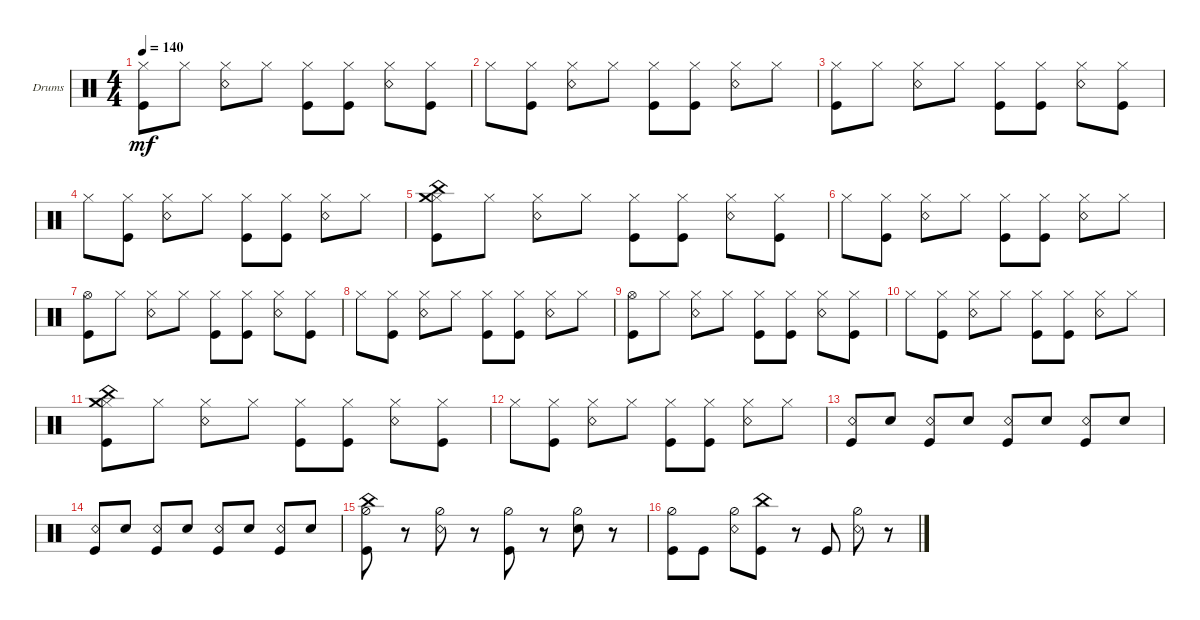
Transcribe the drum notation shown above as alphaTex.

\defaultSystemsLayout 4
\bracketExtendMode groupsimilarinstruments
\firstSystemTrackNameOrientation horizontal
\otherSystemsTrackNameOrientation horizontal
\track ("Drumkit" "Drums") {instrument percussion}
\staff {score}
\articulation defaults
\ts (4 4)
\tempo 140
\clef neutral
\ks c
("Kick (hit)" "Hi-Hat (closed)").8{dy mf} "Hi-Hat (closed)".8 ("Hi-Hat (closed)" "Snare (rim shot)").8 "Hi-Hat (closed)".8 ("Hi-Hat (closed)" "Kick (hit)").8 ("Hi-Hat (closed)" "Kick (hit)").8 ("Hi-Hat (closed)" "Snare (rim shot)").8 ("Hi-Hat (closed)" "Kick (hit)").8 |
"Hi-Hat (closed)".8 ("Hi-Hat (closed)" "Kick (hit)").8 ("Hi-Hat (closed)" "Snare (rim shot)").8 "Hi-Hat (closed)".8 ("Hi-Hat (closed)" "Kick (hit)").8 ("Hi-Hat (closed)" "Kick (hit)").8 ("Hi-Hat (closed)" "Snare (rim shot)").8 "Hi-Hat (closed)".8 |
("Kick (hit)" "Hi-Hat (closed)").8 "Hi-Hat (closed)".8 ("Hi-Hat (closed)" "Snare (rim shot)").8 "Hi-Hat (closed)".8 ("Hi-Hat (closed)" "Kick (hit)").8 ("Hi-Hat (closed)" "Kick (hit)").8 ("Hi-Hat (closed)" "Snare (rim shot)").8 ("Hi-Hat (closed)" "Kick (hit)").8 |
"Hi-Hat (closed)".8 ("Hi-Hat (closed)" "Kick (hit)").8 ("Hi-Hat (closed)" "Snare (rim shot)").8 "Hi-Hat (closed)".8 ("Hi-Hat (closed)" "Kick (hit)").8 ("Hi-Hat (closed)" "Kick (hit)").8 ("Hi-Hat (closed)" "Snare (rim shot)").8 "Hi-Hat (closed)".8 |
("Kick (hit)" "Hi-Hat (closed)" "China (hit)" "Crash medium (hit)").8 "Hi-Hat (closed)".8 ("Hi-Hat (closed)" "Snare (rim shot)").8 "Hi-Hat (closed)".8 ("Hi-Hat (closed)" "Kick (hit)").8 ("Hi-Hat (closed)" "Kick (hit)").8 ("Hi-Hat (closed)" "Snare (rim shot)").8 ("Hi-Hat (closed)" "Kick (hit)").8 |
"Hi-Hat (closed)".8 ("Hi-Hat (closed)" "Kick (hit)").8 ("Hi-Hat (closed)" "Snare (rim shot)").8 "Hi-Hat (closed)".8 ("Hi-Hat (closed)" "Kick (hit)").8 ("Hi-Hat (closed)" "Kick (hit)").8 ("Hi-Hat (closed)" "Snare (rim shot)").8 "Hi-Hat (closed)".8 |
("Kick (hit)" "Hi-Hat (open)").8 "Hi-Hat (closed)".8 ("Hi-Hat (closed)" "Snare (rim shot)").8 "Hi-Hat (closed)".8 ("Hi-Hat (closed)" "Kick (hit)").8 ("Hi-Hat (closed)" "Kick (hit)").8 ("Hi-Hat (closed)" "Snare (rim shot)").8 ("Hi-Hat (closed)" "Kick (hit)").8 |
"Hi-Hat (closed)".8 ("Hi-Hat (closed)" "Kick (hit)").8 ("Hi-Hat (closed)" "Snare (rim shot)").8 "Hi-Hat (closed)".8 ("Hi-Hat (closed)" "Kick (hit)").8 ("Hi-Hat (closed)" "Kick (hit)").8 ("Hi-Hat (closed)" "Snare (rim shot)").8 "Hi-Hat (closed)".8 |
("Kick (hit)" "Hi-Hat (open)").8 "Hi-Hat (closed)".8 ("Hi-Hat (closed)" "Snare (rim shot)").8 "Hi-Hat (closed)".8 ("Hi-Hat (closed)" "Kick (hit)").8 ("Hi-Hat (closed)" "Kick (hit)").8 ("Hi-Hat (closed)" "Snare (rim shot)").8 ("Hi-Hat (closed)" "Kick (hit)").8 |
"Hi-Hat (closed)".8 ("Hi-Hat (closed)" "Kick (hit)").8 ("Hi-Hat (closed)" "Snare (rim shot)").8 "Hi-Hat (closed)".8 ("Hi-Hat (closed)" "Kick (hit)").8 ("Hi-Hat (closed)" "Kick (hit)").8 ("Hi-Hat (closed)" "Snare (rim shot)").8 "Hi-Hat (closed)".8 |
("Kick (hit)" "Hi-Hat (closed)" "China (hit)" "Crash medium (hit)").8 "Hi-Hat (closed)".8 ("Hi-Hat (closed)" "Snare (rim shot)").8 "Hi-Hat (closed)".8 ("Hi-Hat (closed)" "Kick (hit)").8 ("Hi-Hat (closed)" "Kick (hit)").8 ("Hi-Hat (closed)" "Snare (rim shot)").8 ("Hi-Hat (closed)" "Kick (hit)").8 |
"Hi-Hat (closed)".8 ("Hi-Hat (closed)" "Kick (hit)").8 ("Hi-Hat (closed)" "Snare (rim shot)").8 "Hi-Hat (closed)".8 ("Hi-Hat (closed)" "Kick (hit)").8 ("Hi-Hat (closed)" "Kick (hit)").8 ("Hi-Hat (closed)" "Snare (rim shot)").8 "Hi-Hat (closed)".8 |
("Snare (rim shot)" "Kick (hit)").8 "Snare (hit) 2".8 ("Snare (rim shot)" "Kick (hit)").8 "Snare (hit) 2".8 ("Snare (rim shot)" "Kick (hit)").8 "Snare (hit) 2".8 ("Snare (rim shot)" "Kick (hit)").8 "Snare (hit) 2".8 |
("Snare (rim shot)" "Kick (hit)").8 "Snare (hit) 2".8 ("Snare (rim shot)" "Kick (hit)").8 "Snare (hit) 2".8 ("Snare (rim shot)" "Kick (hit)").8 "Snare (hit) 2".8 ("Snare (rim shot)" "Kick (hit)").8 "Snare (hit) 2".8 |
("Kick (hit)" "Hi-Hat (half)" "China (hit)").8 r.8 ("Snare (rim shot)" "Hi-Hat (half)").8 r.8 ("Kick (hit)" "Hi-Hat (half)").8 r.8 ("Snare (hit) 2" "Hi-Hat (half)").8 r.8 |
("Kick (hit)" "Hi-Hat (half)").8 "Kick (hit)".8 ("Snare (rim shot)" "Hi-Hat (half)").8 ("Kick (hit)" "China (hit)").8 r.8 "Kick (hit)".8 ("Snare (rim shot)" "Hi-Hat (half)").8 r.8
